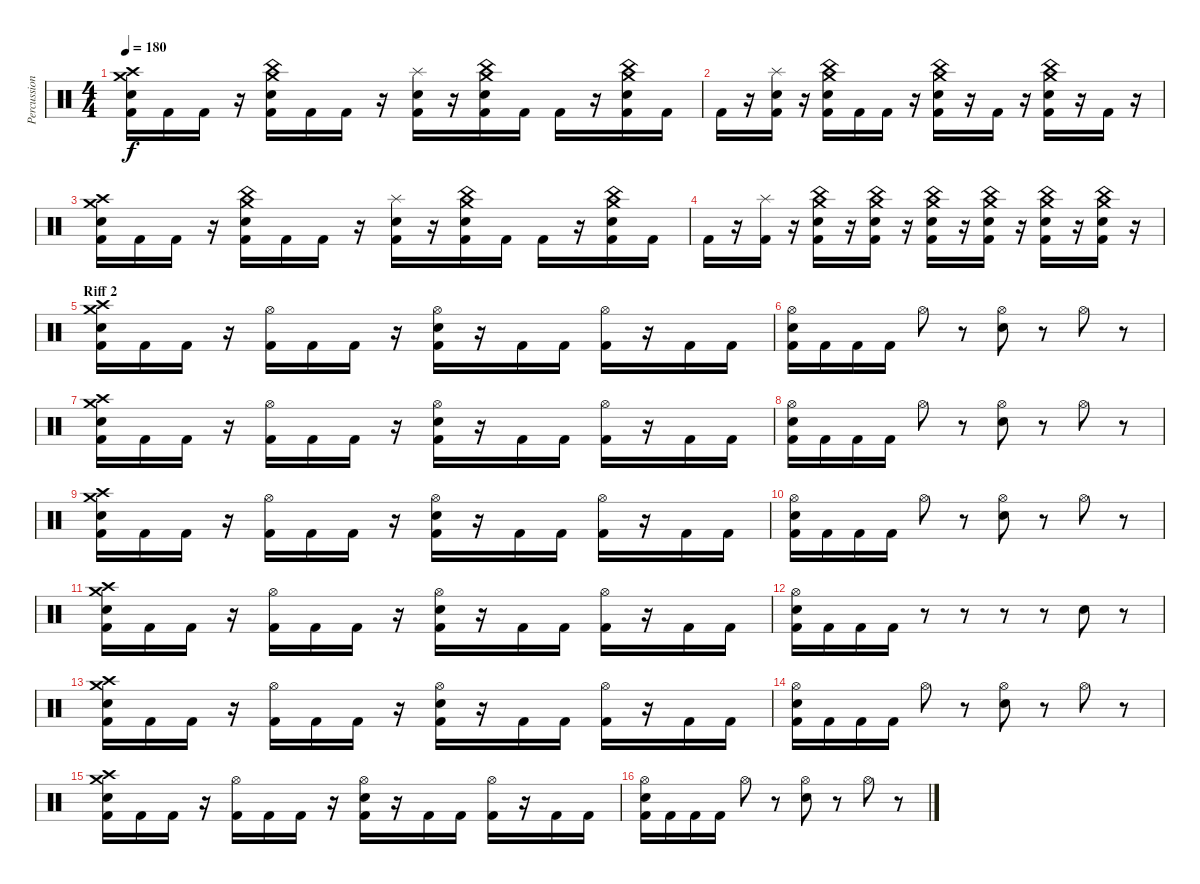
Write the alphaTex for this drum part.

\track ("Percussion" "Percussion") {instrument percussion}
\staff {score}
\articulation defaults
\ts (4 4)
\tempo 180
\clef neutral
\ks c
("Crash medium (hit)" "Crash high (hit)" "Electric Snare (hit)" "Kick (hit) 2").16{dy f} "Kick (hit) 2".16 "Kick (hit) 2".16 r.16 ("China (hit)" "Crash medium (hit)" "Electric Snare (hit)" "Kick (hit) 2").16 "Kick (hit) 2".16 "Kick (hit) 2".16 r.16 ("Splash (hit)" "Electric Snare (hit)" "Kick (hit) 2").16 r.16 ("China (hit)" "Crash medium (hit)" "Electric Snare (hit)" "Kick (hit) 2").16 "Kick (hit) 2".16 "Kick (hit) 2".16 r.16 ("China (hit)" "Crash medium (hit)" "Electric Snare (hit)" "Kick (hit) 2").16 "Kick (hit) 2".16 |
"Kick (hit) 2".16 r.16 ("Splash (hit)" "Electric Snare (hit)" "Kick (hit) 2").16 r.16 ("China (hit)" "Crash medium (hit)" "Electric Snare (hit)" "Kick (hit) 2").16 "Kick (hit) 2".16 "Kick (hit) 2".16 r.16 ("China (hit)" "Crash medium (hit)" "Electric Snare (hit)" "Kick (hit) 2").16 r.16 "Kick (hit) 2".16 r.16 ("China (hit)" "Crash medium (hit)" "Electric Snare (hit)" "Kick (hit) 2").16 r.16 "Kick (hit) 2".16 r.16 |
("Crash medium (hit)" "Crash high (hit)" "Electric Snare (hit)" "Kick (hit) 2").16 "Kick (hit) 2".16 "Kick (hit) 2".16 r.16 ("China (hit)" "Crash medium (hit)" "Electric Snare (hit)" "Kick (hit) 2").16 "Kick (hit) 2".16 "Kick (hit) 2".16 r.16 ("Splash (hit)" "Electric Snare (hit)" "Kick (hit) 2").16 r.16 ("China (hit)" "Crash medium (hit)" "Electric Snare (hit)" "Kick (hit) 2").16 "Kick (hit) 2".16 "Kick (hit) 2".16 r.16 ("China (hit)" "Crash medium (hit)" "Electric Snare (hit)" "Kick (hit) 2").16 "Kick (hit) 2".16 |
"Kick (hit) 2".16 r.16 ("Splash (hit)" "Kick (hit) 2").16 r.16 ("China (hit)" "Crash medium (hit)" "Electric Snare (hit)" "Kick (hit) 2").16 r.16 ("China (hit)" "Crash medium (hit)" "Electric Snare (hit)" "Kick (hit) 2").16 r.16 ("China (hit)" "Crash medium (hit)" "Electric Snare (hit)" "Kick (hit) 2").16 r.16 ("China (hit)" "Crash medium (hit)" "Electric Snare (hit)" "Kick (hit) 2").16 r.16 ("China (hit)" "Crash medium (hit)" "Electric Snare (hit)" "Kick (hit) 2").16 r.16 ("China (hit)" "Crash medium (hit)" "Electric Snare (hit)" "Kick (hit) 2").16 r.16 |
\section ("" "Riff 2")
("Crash medium (hit)" "Crash high (hit)" "Electric Snare (hit)" "Kick (hit) 2").16 "Kick (hit) 2".16 "Kick (hit) 2".16 r.16 ("Hi-Hat (open)" "Kick (hit) 2").16 "Kick (hit) 2".16 "Kick (hit) 2".16 r.16 ("Hi-Hat (open)" "Electric Snare (hit)" "Kick (hit) 2").16 r.16 "Kick (hit) 2".16 "Kick (hit) 2".16 ("Hi-Hat (open)" "Kick (hit) 2").16 r.16 "Kick (hit) 2".16 "Kick (hit) 2".16 |
("Hi-Hat (open)" "Electric Snare (hit)" "Kick (hit) 2").16 "Kick (hit) 2".16 "Kick (hit) 2".16 "Kick (hit) 2".16 "Hi-Hat (open)".8 r.8 ("Hi-Hat (open)" "Electric Snare (hit)").8 r.8 "Hi-Hat (open)".8 r.8 |
("Crash medium (hit)" "Crash high (hit)" "Electric Snare (hit)" "Kick (hit) 2").16 "Kick (hit) 2".16 "Kick (hit) 2".16 r.16 ("Hi-Hat (open)" "Kick (hit) 2").16 "Kick (hit) 2".16 "Kick (hit) 2".16 r.16 ("Hi-Hat (open)" "Electric Snare (hit)" "Kick (hit) 2").16 r.16 "Kick (hit) 2".16 "Kick (hit) 2".16 ("Hi-Hat (open)" "Kick (hit) 2").16 r.16 "Kick (hit) 2".16 "Kick (hit) 2".16 |
("Hi-Hat (open)" "Electric Snare (hit)" "Kick (hit) 2").16 "Kick (hit) 2".16 "Kick (hit) 2".16 "Kick (hit) 2".16 "Hi-Hat (open)".8 r.8 ("Hi-Hat (open)" "Electric Snare (hit)").8 r.8 "Hi-Hat (open)".8 r.8 |
("Crash medium (hit)" "Crash high (hit)" "Electric Snare (hit)" "Kick (hit) 2").16 "Kick (hit) 2".16 "Kick (hit) 2".16 r.16 ("Hi-Hat (open)" "Kick (hit) 2").16 "Kick (hit) 2".16 "Kick (hit) 2".16 r.16 ("Hi-Hat (open)" "Electric Snare (hit)" "Kick (hit) 2").16 r.16 "Kick (hit) 2".16 "Kick (hit) 2".16 ("Hi-Hat (open)" "Kick (hit) 2").16 r.16 "Kick (hit) 2".16 "Kick (hit) 2".16 |
("Hi-Hat (open)" "Electric Snare (hit)" "Kick (hit) 2").16 "Kick (hit) 2".16 "Kick (hit) 2".16 "Kick (hit) 2".16 "Hi-Hat (open)".8 r.8 ("Hi-Hat (open)" "Electric Snare (hit)").8 r.8 "Hi-Hat (open)".8 r.8 |
("Crash medium (hit)" "Crash high (hit)" "Electric Snare (hit)" "Kick (hit) 2").16 "Kick (hit) 2".16 "Kick (hit) 2".16 r.16 ("Hi-Hat (open)" "Kick (hit) 2").16 "Kick (hit) 2".16 "Kick (hit) 2".16 r.16 ("Hi-Hat (open)" "Electric Snare (hit)" "Kick (hit) 2").16 r.16 "Kick (hit) 2".16 "Kick (hit) 2".16 ("Hi-Hat (open)" "Kick (hit) 2").16 r.16 "Kick (hit) 2".16 "Kick (hit) 2".16 |
("Hi-Hat (open)" "Electric Snare (hit)" "Kick (hit) 2").16 "Kick (hit) 2".16 "Kick (hit) 2".16 "Kick (hit) 2".16 r.8 r.8 r.8 r.8 "Electric Snare (hit)".8 r.8 |
("Crash medium (hit)" "Crash high (hit)" "Electric Snare (hit)" "Kick (hit) 2").16 "Kick (hit) 2".16 "Kick (hit) 2".16 r.16 ("Hi-Hat (open)" "Kick (hit) 2").16 "Kick (hit) 2".16 "Kick (hit) 2".16 r.16 ("Hi-Hat (open)" "Electric Snare (hit)" "Kick (hit) 2").16 r.16 "Kick (hit) 2".16 "Kick (hit) 2".16 ("Hi-Hat (open)" "Kick (hit) 2").16 r.16 "Kick (hit) 2".16 "Kick (hit) 2".16 |
("Hi-Hat (open)" "Electric Snare (hit)" "Kick (hit) 2").16 "Kick (hit) 2".16 "Kick (hit) 2".16 "Kick (hit) 2".16 "Hi-Hat (open)".8 r.8 ("Hi-Hat (open)" "Electric Snare (hit)").8 r.8 "Hi-Hat (open)".8 r.8 |
("Crash medium (hit)" "Crash high (hit)" "Electric Snare (hit)" "Kick (hit) 2").16 "Kick (hit) 2".16 "Kick (hit) 2".16 r.16 ("Hi-Hat (open)" "Kick (hit) 2").16 "Kick (hit) 2".16 "Kick (hit) 2".16 r.16 ("Hi-Hat (open)" "Electric Snare (hit)" "Kick (hit) 2").16 r.16 "Kick (hit) 2".16 "Kick (hit) 2".16 ("Hi-Hat (open)" "Kick (hit) 2").16 r.16 "Kick (hit) 2".16 "Kick (hit) 2".16 |
("Hi-Hat (open)" "Electric Snare (hit)" "Kick (hit) 2").16 "Kick (hit) 2".16 "Kick (hit) 2".16 "Kick (hit) 2".16 "Hi-Hat (open)".8 r.8 ("Hi-Hat (open)" "Electric Snare (hit)").8 r.8 "Hi-Hat (open)".8 r.8
